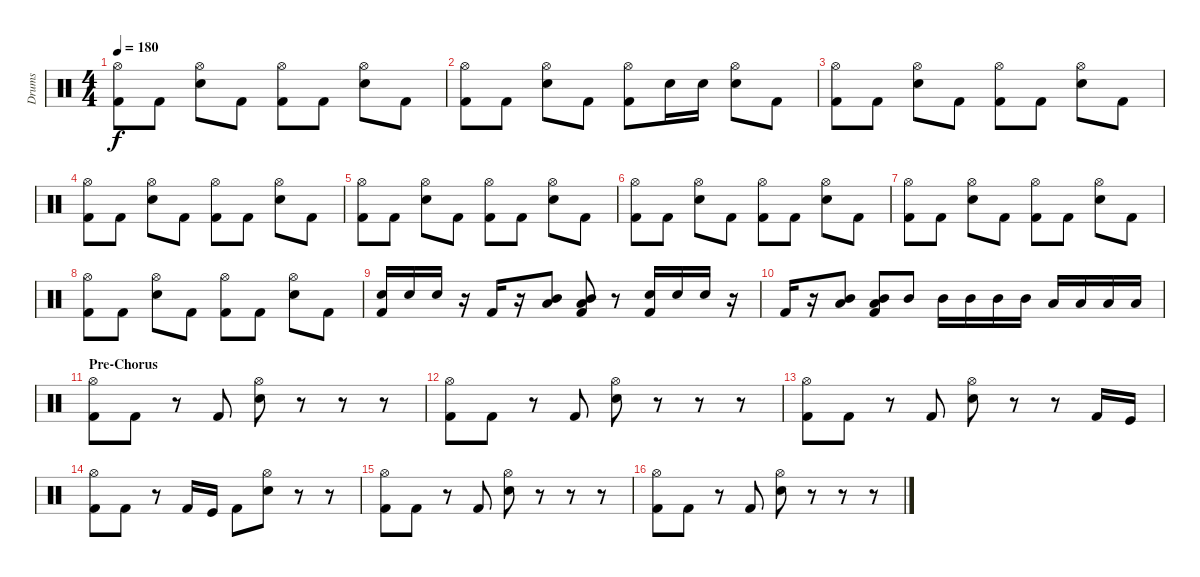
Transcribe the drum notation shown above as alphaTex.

\track ("Drums" "Drums") {instrument percussion}
\staff {score}
\articulation defaults
\ts (4 4)
\tempo 180
\clef neutral
\ks c
("Hi-Hat (open)" "Kick (hit) 2").8{dy f} "Kick (hit) 2".8 ("Hi-Hat (open)" "Electric Snare (hit)").8 "Kick (hit) 2".8 ("Hi-Hat (open)" "Kick (hit) 2").8 "Kick (hit) 2".8 ("Hi-Hat (open)" "Electric Snare (hit)").8 "Kick (hit) 2".8 |
("Hi-Hat (open)" "Kick (hit) 2").8 "Kick (hit) 2".8 ("Hi-Hat (open)" "Electric Snare (hit)").8 "Kick (hit) 2".8 ("Hi-Hat (open)" "Kick (hit) 2").8 "Electric Snare (hit)".16 "Electric Snare (hit)".16 ("Hi-Hat (open)" "Electric Snare (hit)").8 "Kick (hit) 2".8 |
("Hi-Hat (open)" "Kick (hit) 2").8 "Kick (hit) 2".8 ("Hi-Hat (open)" "Electric Snare (hit)").8 "Kick (hit) 2".8 ("Hi-Hat (open)" "Kick (hit) 2").8 "Kick (hit) 2".8 ("Hi-Hat (open)" "Electric Snare (hit)").8 "Kick (hit) 2".8 |
("Hi-Hat (open)" "Kick (hit) 2").8 "Kick (hit) 2".8 ("Hi-Hat (open)" "Electric Snare (hit)").8 "Kick (hit) 2".8 ("Hi-Hat (open)" "Kick (hit) 2").8 "Kick (hit) 2".8 ("Hi-Hat (open)" "Electric Snare (hit)").8 "Kick (hit) 2".8 |
("Hi-Hat (open)" "Kick (hit) 2").8 "Kick (hit) 2".8 ("Hi-Hat (open)" "Electric Snare (hit)").8 "Kick (hit) 2".8 ("Hi-Hat (open)" "Kick (hit) 2").8 "Kick (hit) 2".8 ("Hi-Hat (open)" "Electric Snare (hit)").8 "Kick (hit) 2".8 |
("Hi-Hat (open)" "Kick (hit) 2").8 "Kick (hit) 2".8 ("Hi-Hat (open)" "Electric Snare (hit)").8 "Kick (hit) 2".8 ("Hi-Hat (open)" "Kick (hit) 2").8 "Kick (hit) 2".8 ("Hi-Hat (open)" "Electric Snare (hit)").8 "Kick (hit) 2".8 |
("Hi-Hat (open)" "Kick (hit) 2").8 "Kick (hit) 2".8 ("Hi-Hat (open)" "Electric Snare (hit)").8 "Kick (hit) 2".8 ("Hi-Hat (open)" "Kick (hit) 2").8 "Kick (hit) 2".8 ("Hi-Hat (open)" "Electric Snare (hit)").8 "Kick (hit) 2".8 |
("Hi-Hat (open)" "Kick (hit) 2").8 "Kick (hit) 2".8 ("Hi-Hat (open)" "Electric Snare (hit)").8 "Kick (hit) 2".8 ("Hi-Hat (open)" "Kick (hit) 2").8 "Kick (hit) 2".8 ("Hi-Hat (open)" "Electric Snare (hit)").8 "Kick (hit) 2".8 |
("Electric Snare (hit)" "Kick (hit) 2").16 "Electric Snare (hit)".16 "Electric Snare (hit)".16 r.16 "Kick (hit) 2".16 r.16 ("Mid Tom (hit)" "Low Tom (hit)").8 ("Mid Tom (hit)" "Low Tom (hit)" "Kick (hit) 2").8 r.8 ("Electric Snare (hit)" "Kick (hit) 2").16 "Electric Snare (hit)".16 "Electric Snare (hit)".16 r.16 |
"Kick (hit) 2".16 r.16 ("Mid Tom (hit)" "Low Tom (hit)").8 ("Mid Tom (hit)" "Low Tom (hit)" "Kick (hit) 2").8 "Mid Tom (hit)".8 "Mid Tom (hit)".16 "Mid Tom (hit)".16 "Mid Tom (hit)".16 "Mid Tom (hit)".16 "Low Tom (hit)".16 "Low Tom (hit)".16 "Low Tom (hit)".16 "Low Tom (hit)".16 |
\section ("" "Pre-Chorus")
("Hi-Hat (open)" "Kick (hit) 2").8 "Kick (hit) 2".8 r.8 "Kick (hit) 2".8 ("Hi-Hat (open)" "Electric Snare (hit)").8 r.8 r.8 r.8 |
("Hi-Hat (open)" "Kick (hit) 2").8 "Kick (hit) 2".8 r.8 "Kick (hit) 2".8 ("Hi-Hat (open)" "Electric Snare (hit)").8 r.8 r.8 r.8 |
("Hi-Hat (open)" "Kick (hit) 2").8 "Kick (hit) 2".8 r.8 "Kick (hit) 2".8 ("Hi-Hat (open)" "Electric Snare (hit)").8 r.8 r.8 "Kick (hit) 2".16 "Kick (hit)".16 |
("Hi-Hat (open)" "Kick (hit) 2").8 "Kick (hit) 2".8 r.8 "Kick (hit) 2".16 "Kick (hit)".16 "Kick (hit) 2".8 ("Hi-Hat (open)" "Electric Snare (hit)").8 r.8 r.8 |
("Hi-Hat (open)" "Kick (hit) 2").8 "Kick (hit) 2".8 r.8 "Kick (hit) 2".8 ("Hi-Hat (open)" "Electric Snare (hit)").8 r.8 r.8 r.8 |
("Hi-Hat (open)" "Kick (hit) 2").8 "Kick (hit) 2".8 r.8 "Kick (hit) 2".8 ("Hi-Hat (open)" "Electric Snare (hit)").8 r.8 r.8 r.8
